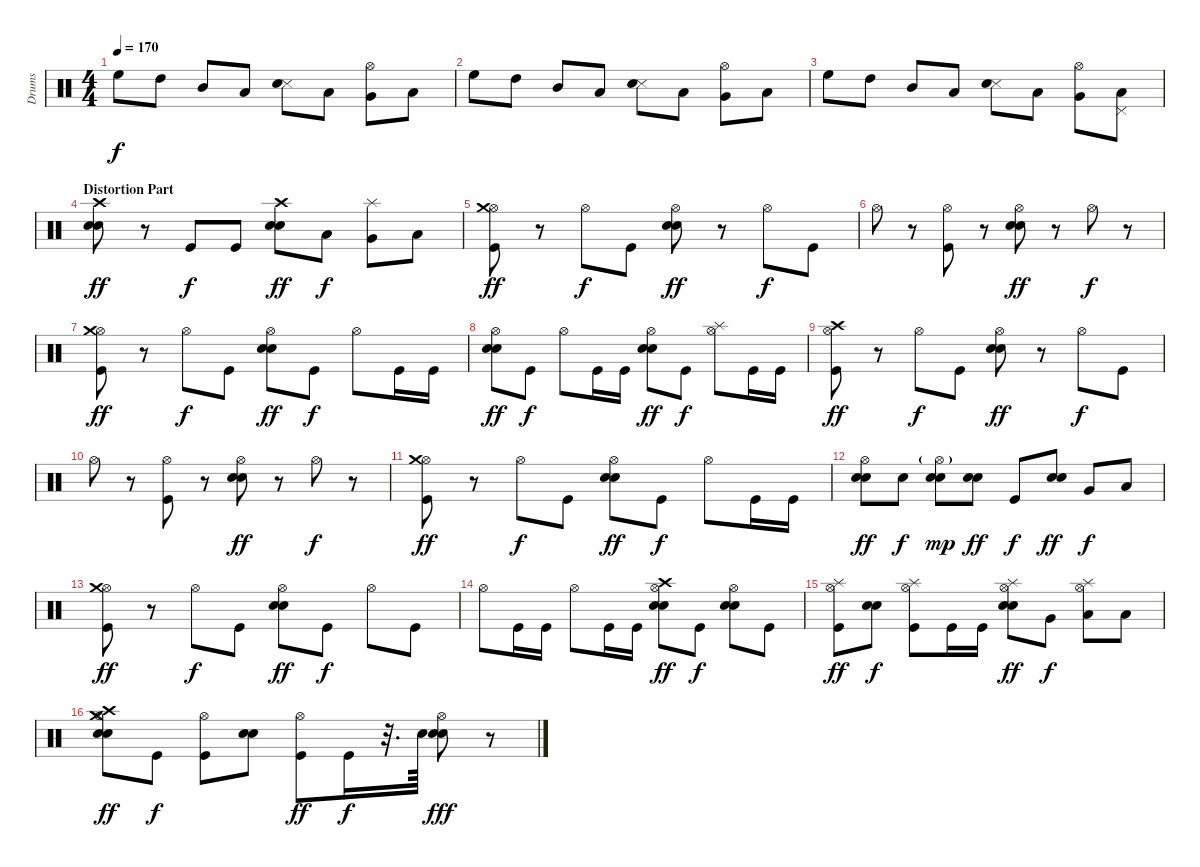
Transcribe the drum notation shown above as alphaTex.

\track ("Drums" "Drums") {instrument percussion}
\staff {score}
\articulation defaults
\ts (4 4)
\tempo 170
\clef neutral
\ks c "High Floor Tom (hit)".8{dy f} "High Tom (hit)".8 "Mid Tom (hit)".8 "Low Tom (hit)".8
("Snare (side stick) 3" "Hand Clap (hit)").8 "Low Tom (hit)".8 ("Very Low Tom (hit)" "Hi-Hat (open)").8 "Low Floor Tom (hit)".8 |
"High Floor Tom (hit)".8 "High Tom (hit)".8 "Mid Tom (hit)".8 "Low Tom (hit)".8 ("Snare (side stick) 3" "Hand Clap (hit)").8 "Low Tom (hit)".8 ("Very Low Tom (hit)" "Hi-Hat (open)").8 "Low Floor Tom (hit)".8 |
"High Floor Tom (hit)".8 "High Tom (hit)".8 "Mid Tom (hit)".8 "Low Tom (hit)".8 ("Snare (side stick) 3" "Hand Clap (hit)").8 "Low Tom (hit)".8 ("Very Low Tom (hit)" "Hi-Hat (open)").8 ("Low Floor Tom (hit)" "Pedal Hi-Hat (hit)").8 |
\section ("" "Distortion Part")
("Electric Snare (hit)" "Electric Snare (hit)" "Crash high (hit)").8{dy ff} r.8 "Kick (hit)".8{dy f} "Kick (hit)".8 ("Electric Snare (hit)" "Electric Snare (hit)" "Crash high (hit)").8{dy ff} "Low Tom (hit)".8{dy f} ("Very Low Tom (hit)" "Splash (hit)").8 "Low Floor Tom (hit)".8 |
("Kick (hit)" "Hi-Hat (open)" "Crash medium (hit)").8{dy ff} r.8 "Hi-Hat (open)".8{dy f} "Kick (hit)".8 ("Electric Snare (hit)" "Electric Snare (hit)" "Hi-Hat (open)").8{dy ff} r.8 "Hi-Hat (open)".8{dy f} "Kick (hit)".8 |
"Hi-Hat (open)".8 r.8 ("Kick (hit)" "Hi-Hat (open)").8 r.8 ("Electric Snare (hit)" "Electric Snare (hit)" "Hi-Hat (open)").8{dy ff} r.8 "Hi-Hat (open)".8{dy f} r.8 |
("Kick (hit)" "Hi-Hat (open)" "Crash medium (hit)").8{dy ff} r.8 "Hi-Hat (open)".8{dy f} "Kick (hit)".8 ("Electric Snare (hit)" "Electric Snare (hit)" "Hi-Hat (open)").8{dy ff} "Kick (hit)".8{dy f} "Hi-Hat (open)".8 "Kick (hit)".16 "Kick (hit)".16 |
("Electric Snare (hit)" "Electric Snare (hit)" "Hi-Hat (open)").8{dy ff} "Kick (hit)".8{dy f} "Hi-Hat (open)".8 "Kick (hit)".16 "Kick (hit)".16 ("Electric Snare (hit)" "Electric Snare (hit)" "Hi-Hat (open)").8{dy ff} "Kick (hit)".8{dy f} ("Hi-Hat (open)" "Splash (hit)").8 "Kick (hit)".16 "Kick (hit)".16 |
("Kick (hit)" "Hi-Hat (open)" "Crash high (hit)").8{dy ff} r.8 "Hi-Hat (open)".8{dy f} "Kick (hit)".8 ("Electric Snare (hit)" "Electric Snare (hit)" "Hi-Hat (open)").8{dy ff} r.8 "Hi-Hat (open)".8{dy f} "Kick (hit)".8 |
"Hi-Hat (open)".8 r.8 ("Kick (hit)" "Hi-Hat (open)").8 r.8 ("Electric Snare (hit)" "Electric Snare (hit)" "Hi-Hat (open)").8{dy ff} r.8 "Hi-Hat (open)".8{dy f} r.8 |
("Kick (hit)" "Hi-Hat (open)" "Crash medium (hit)").8{dy ff} r.8 "Hi-Hat (open)".8{dy f} "Kick (hit)".8 ("Electric Snare (hit)" "Electric Snare (hit)" "Hi-Hat (open)").8{dy ff} "Kick (hit)".8{dy f} "Hi-Hat (open)".8 "Kick (hit)".16 "Kick (hit)".16 |
("Electric Snare (hit)" "Electric Snare (hit)" "Hi-Hat (open)").8{dy ff} "Electric Snare (hit)".8{dy f} ("Electric Snare (hit)" "Electric Snare (hit)" "Hi-Hat (open)"{g}).8{dy mp} ("Electric Snare (hit)" "Electric Snare (hit)").8{dy ff} "Kick (hit)".8{dy f} ("Electric Snare (hit)" "Electric Snare (hit)").8{dy ff} "Very Low Tom (hit)".8{dy f} "Low Floor Tom (hit)".8 |
("Kick (hit)" "Hi-Hat (open)" "Crash medium (hit)").8{dy ff} r.8 "Hi-Hat (open)".8{dy f} "Kick (hit)".8 ("Electric Snare (hit)" "Electric Snare (hit)" "Hi-Hat (open)").8{dy ff} "Kick (hit)".8{dy f} "Hi-Hat (open)".8 "Kick (hit)".8 |
"Hi-Hat (open)".8 "Kick (hit)".16 "Kick (hit)".16 "Hi-Hat (open)".8 "Kick (hit)".16 "Kick (hit)".16 ("Electric Snare (hit)" "Electric Snare (hit)" "Hi-Hat (open)" "Crash high (hit)").8{dy ff} "Kick (hit)".8{dy f} ("Electric Snare (hit)" "Electric Snare (hit)" "Hi-Hat (open)").8 "Kick (hit)".8 |
("Kick (hit)" "Hi-Hat (open)" "Splash (hit)").8{dy ff} ("Electric Snare (hit)" "Electric Snare (hit)").8{dy f} ("Kick (hit)" "Hi-Hat (open)" "Splash (hit)").8 "Kick (hit)".16 "Kick (hit)".16 ("Electric Snare (hit)" "Electric Snare (hit)" "Hi-Hat (open)" "Splash (hit)").8{dy ff} "Very Low Tom (hit)".8{dy f} ("Low Tom (hit)" "Hi-Hat (open)" "Splash (hit)").8 "Low Floor Tom (hit)".8 |
("Electric Snare (hit)" "Electric Snare (hit)" "Hi-Hat (open)" "Crash high (hit)" "Crash medium (hit)").8{dy ff} "Kick (hit)".8{dy f} ("Kick (hit)" "Hi-Hat (open)").8 ("Electric Snare (hit)" "Electric Snare (hit)").8 ("Kick (hit)" "Hi-Hat (open)").8{dy ff} "Kick (hit)".16{dy f} r.32{d} "Electric Snare (hit)".64 ("Electric Snare (hit)" "Electric Snare (hit)" "Hi-Hat (open)").8{dy fff} r.8
